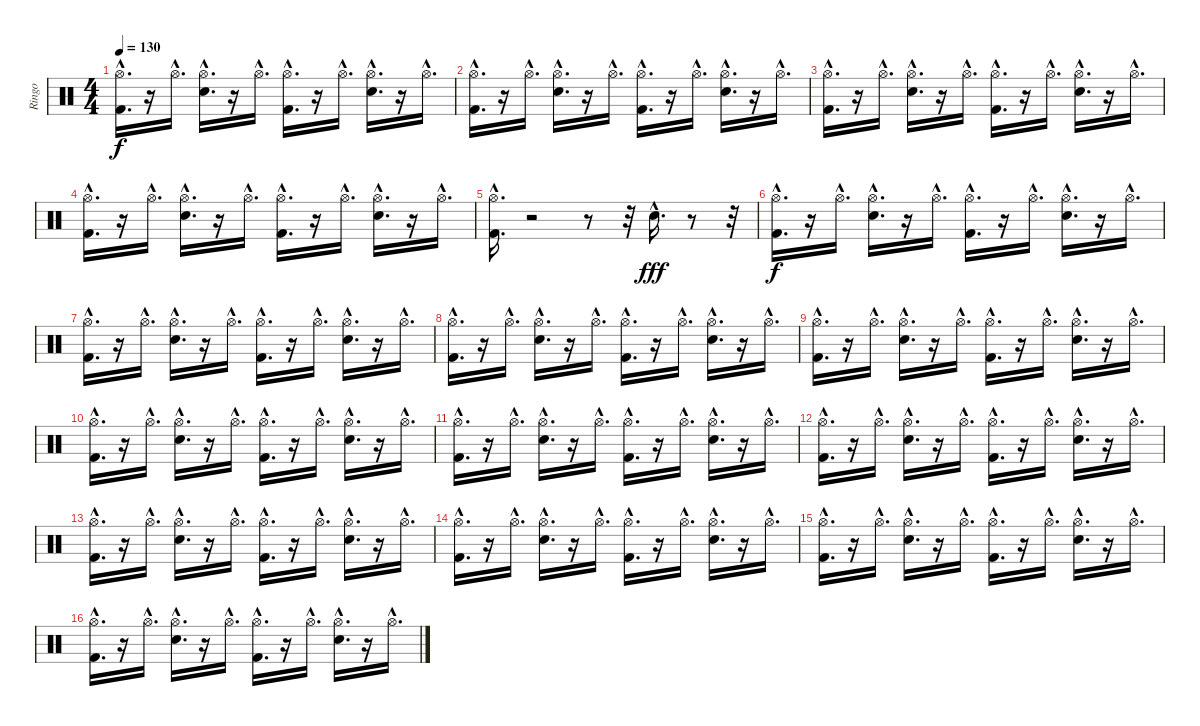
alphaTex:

\track ("Ringo" "Ringo") {instrument percussion}
\staff {score}
\articulation defaults
\ts (4 4)
\tempo 130
\clef neutral
\ks c
("Hi-Hat (open)"{hac} "Kick (hit) 2"{hac}).16{d dy f} r.16 "Hi-Hat (open)"{hac}.16{d} ("Hi-Hat (open)"{hac} "Snare (hit) 2"{hac}).16{d} r.16 "Hi-Hat (open)"{hac}.16{d} ("Hi-Hat (open)"{hac} "Kick (hit) 2"{hac}).16{d} r.16 "Hi-Hat (open)"{hac}.16{d} ("Hi-Hat (open)"{hac} "Snare (hit) 2"{hac}).16{d} r.16 "Hi-Hat (open)"{hac}.16{d} |
("Kick (hit) 2"{hac} "Hi-Hat (open)"{hac}).16{d} r.16 "Hi-Hat (open)"{hac}.16{d} ("Snare (hit) 2"{hac} "Hi-Hat (open)"{hac}).16{d} r.16 "Hi-Hat (open)"{hac}.16{d} ("Kick (hit) 2"{hac} "Hi-Hat (open)"{hac}).16{d} r.16 "Hi-Hat (open)"{hac}.16{d} ("Snare (hit) 2"{hac} "Hi-Hat (open)"{hac}).16{d} r.16 "Hi-Hat (open)"{hac}.16{d} |
("Hi-Hat (open)"{hac} "Kick (hit) 2"{hac}).16{d} r.16 "Hi-Hat (open)"{hac}.16{d} ("Hi-Hat (open)"{hac} "Snare (hit) 2"{hac}).16{d} r.16 "Hi-Hat (open)"{hac}.16{d} ("Hi-Hat (open)"{hac} "Kick (hit) 2"{hac}).16{d} r.16 "Hi-Hat (open)"{hac}.16{d} ("Hi-Hat (open)"{hac} "Snare (hit) 2"{hac}).16{d} r.16 "Hi-Hat (open)"{hac}.16{d} |
("Hi-Hat (open)"{hac} "Kick (hit) 2"{hac}).16{d} r.16 "Hi-Hat (open)"{hac}.16{d} ("Hi-Hat (open)"{hac} "Snare (hit) 2"{hac}).16{d} r.16 "Hi-Hat (open)"{hac}.16{d} ("Hi-Hat (open)"{hac} "Kick (hit) 2"{hac}).16{d} r.16 "Hi-Hat (open)"{hac}.16{d} ("Hi-Hat (open)"{hac} "Snare (hit) 2"{hac}).16{d} r.16 "Hi-Hat (open)"{hac}.16{d} |
("Hi-Hat (open)"{hac} "Kick (hit) 2"{hac}).16{d} r.2 r.8 r.32 "Snare (hit) 2"{hac}.16{d dy fff} r.8 r.32 |
("Kick (hit) 2"{hac} "Hi-Hat (open)"{hac}).16{d dy f} r.16 "Hi-Hat (open)"{hac}.16{d} ("Snare (hit) 2"{hac} "Hi-Hat (open)"{hac}).16{d} r.16 "Hi-Hat (open)"{hac}.16{d} ("Kick (hit) 2"{hac} "Hi-Hat (open)"{hac}).16{d} r.16 "Hi-Hat (open)"{hac}.16{d} ("Snare (hit) 2"{hac} "Hi-Hat (open)"{hac}).16{d} r.16 "Hi-Hat (open)"{hac}.16{d} |
("Hi-Hat (open)"{hac} "Kick (hit) 2"{hac}).16{d} r.16 "Hi-Hat (open)"{hac}.16{d} ("Hi-Hat (open)"{hac} "Snare (hit) 2"{hac}).16{d} r.16 "Hi-Hat (open)"{hac}.16{d} ("Hi-Hat (open)"{hac} "Kick (hit) 2"{hac}).16{d} r.16 "Hi-Hat (open)"{hac}.16{d} ("Hi-Hat (open)"{hac} "Snare (hit) 2"{hac}).16{d} r.16 "Hi-Hat (open)"{hac}.16{d} |
("Hi-Hat (open)"{hac} "Kick (hit) 2"{hac}).16{d} r.16 "Hi-Hat (open)"{hac}.16{d} ("Hi-Hat (open)"{hac} "Snare (hit) 2"{hac}).16{d} r.16 "Hi-Hat (open)"{hac}.16{d} ("Hi-Hat (open)"{hac} "Kick (hit) 2"{hac}).16{d} r.16 "Hi-Hat (open)"{hac}.16{d} ("Hi-Hat (open)"{hac} "Snare (hit) 2"{hac}).16{d} r.16 "Hi-Hat (open)"{hac}.16{d} |
("Hi-Hat (open)"{hac} "Kick (hit) 2"{hac}).16{d} r.16 "Hi-Hat (open)"{hac}.16{d} ("Hi-Hat (open)"{hac} "Snare (hit) 2"{hac}).16{d} r.16 "Hi-Hat (open)"{hac}.16{d} ("Hi-Hat (open)"{hac} "Kick (hit) 2"{hac}).16{d} r.16 "Hi-Hat (open)"{hac}.16{d} ("Hi-Hat (open)"{hac} "Snare (hit) 2"{hac}).16{d} r.16 "Hi-Hat (open)"{hac}.16{d} |
("Kick (hit) 2"{hac} "Hi-Hat (open)"{hac}).16{d} r.16 "Hi-Hat (open)"{hac}.16{d} ("Snare (hit) 2"{hac} "Hi-Hat (open)"{hac}).16{d} r.16 "Hi-Hat (open)"{hac}.16{d} ("Kick (hit) 2"{hac} "Hi-Hat (open)"{hac}).16{d} r.16 "Hi-Hat (open)"{hac}.16{d} ("Snare (hit) 2"{hac} "Hi-Hat (open)"{hac}).16{d} r.16 "Hi-Hat (open)"{hac}.16{d} |
("Hi-Hat (open)"{hac} "Kick (hit) 2"{hac}).16{d} r.16 "Hi-Hat (open)"{hac}.16{d} ("Hi-Hat (open)"{hac} "Snare (hit) 2"{hac}).16{d} r.16 "Hi-Hat (open)"{hac}.16{d} ("Hi-Hat (open)"{hac} "Kick (hit) 2"{hac}).16{d} r.16 "Hi-Hat (open)"{hac}.16{d} ("Hi-Hat (open)"{hac} "Snare (hit) 2"{hac}).16{d} r.16 "Hi-Hat (open)"{hac}.16{d} |
("Hi-Hat (open)"{hac} "Kick (hit) 2"{hac}).16{d} r.16 "Hi-Hat (open)"{hac}.16{d} ("Hi-Hat (open)"{hac} "Snare (hit) 2"{hac}).16{d} r.16 "Hi-Hat (open)"{hac}.16{d} ("Hi-Hat (open)"{hac} "Kick (hit) 2"{hac}).16{d} r.16 "Hi-Hat (open)"{hac}.16{d} ("Hi-Hat (open)"{hac} "Snare (hit) 2"{hac}).16{d} r.16 "Hi-Hat (open)"{hac}.16{d} |
("Hi-Hat (open)"{hac} "Kick (hit) 2"{hac}).16{d} r.16 "Hi-Hat (open)"{hac}.16{d} ("Hi-Hat (open)"{hac} "Snare (hit) 2"{hac}).16{d} r.16 "Hi-Hat (open)"{hac}.16{d} ("Hi-Hat (open)"{hac} "Kick (hit) 2"{hac}).16{d} r.16 "Hi-Hat (open)"{hac}.16{d} ("Hi-Hat (open)"{hac} "Snare (hit) 2"{hac}).16{d} r.16 "Hi-Hat (open)"{hac}.16{d} |
("Kick (hit) 2"{hac} "Hi-Hat (open)"{hac}).16{d} r.16 "Hi-Hat (open)"{hac}.16{d} ("Snare (hit) 2"{hac} "Hi-Hat (open)"{hac}).16{d} r.16 "Hi-Hat (open)"{hac}.16{d} ("Kick (hit) 2"{hac} "Hi-Hat (open)"{hac}).16{d} r.16 "Hi-Hat (open)"{hac}.16{d} ("Snare (hit) 2"{hac} "Hi-Hat (open)"{hac}).16{d} r.16 "Hi-Hat (open)"{hac}.16{d} |
("Hi-Hat (open)"{hac} "Kick (hit) 2"{hac}).16{d} r.16 "Hi-Hat (open)"{hac}.16{d} ("Hi-Hat (open)"{hac} "Snare (hit) 2"{hac}).16{d} r.16 "Hi-Hat (open)"{hac}.16{d} ("Hi-Hat (open)"{hac} "Kick (hit) 2"{hac}).16{d} r.16 "Hi-Hat (open)"{hac}.16{d} ("Hi-Hat (open)"{hac} "Snare (hit) 2"{hac}).16{d} r.16 "Hi-Hat (open)"{hac}.16{d} |
("Hi-Hat (open)"{hac} "Kick (hit) 2"{hac}).16{d} r.16 "Hi-Hat (open)"{hac}.16{d} ("Hi-Hat (open)"{hac} "Snare (hit) 2"{hac}).16{d} r.16 "Hi-Hat (open)"{hac}.16{d} ("Hi-Hat (open)"{hac} "Kick (hit) 2"{hac}).16{d} r.16 "Hi-Hat (open)"{hac}.16{d} ("Hi-Hat (open)"{hac} "Snare (hit) 2"{hac}).16{d} r.16 "Hi-Hat (open)"{hac}.16{d}
